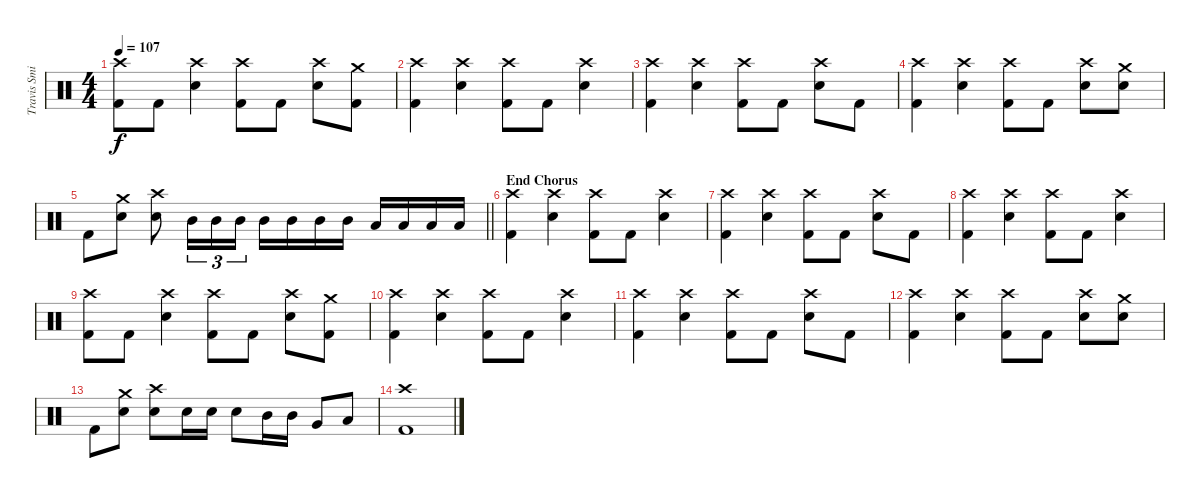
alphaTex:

\track ("Travis Smith" "Travis Smi") {instrument percussion}
\staff {score}
\articulation defaults
\ts (4 4)
\tempo 107
\clef neutral
\ks c
("Crash high (hit)" "Kick (hit) 2").8{dy f} "Kick (hit) 2".8 ("Crash high (hit)" "Electric Snare (hit)").4 ("Crash high (hit)" "Kick (hit) 2").8 "Kick (hit) 2".8 ("Crash high (hit)" "Electric Snare (hit)").8 ("Crash medium (hit)" "Kick (hit) 2").8 |
("Crash high (hit)" "Kick (hit) 2").4 ("Crash high (hit)" "Electric Snare (hit)").4 ("Crash high (hit)" "Kick (hit) 2").8 "Kick (hit) 2".8 ("Crash high (hit)" "Electric Snare (hit)").4 |
("Crash high (hit)" "Kick (hit) 2").4 ("Crash high (hit)" "Electric Snare (hit)").4 ("Crash high (hit)" "Kick (hit) 2").8 "Kick (hit) 2".8 ("Crash high (hit)" "Electric Snare (hit)").8 "Kick (hit) 2".8 |
("Crash high (hit)" "Kick (hit) 2").4 ("Crash high (hit)" "Electric Snare (hit)").4 ("Crash high (hit)" "Kick (hit) 2").8 "Kick (hit) 2".8 ("Crash high (hit)" "Electric Snare (hit)").8 ("Crash medium (hit)" "Electric Snare (hit)").8 |
\barLineRight lightlight "Kick (hit) 2".8
("Crash medium (hit)" "Electric Snare (hit)").8 ("Crash high (hit)" "Electric Snare (hit)").8 "Mid Tom (hit)".16{tu (3 2)} "Mid Tom (hit)".16{tu (3 2)} "Mid Tom (hit)".16{tu (3 2)} "Mid Tom (hit)".16 "Mid Tom (hit)".16 "Mid Tom (hit)".16 "Mid Tom (hit)".16 "Low Tom (hit)".16 "Low Tom (hit)".16 "Low Floor Tom (hit)".16 "Low Floor Tom (hit)".16 |
\section ("" "End Chorus")
("Crash high (hit)" "Kick (hit) 2").4 ("Crash high (hit)" "Electric Snare (hit)").4 ("Crash high (hit)" "Kick (hit) 2").8 "Kick (hit) 2".8 ("Crash high (hit)" "Electric Snare (hit)").4 |
("Crash high (hit)" "Kick (hit) 2").4 ("Crash high (hit)" "Electric Snare (hit)").4 ("Crash high (hit)" "Kick (hit) 2").8 "Kick (hit) 2".8 ("Crash high (hit)" "Electric Snare (hit)").8 "Kick (hit) 2".8 |
("Crash high (hit)" "Kick (hit) 2").4 ("Crash high (hit)" "Electric Snare (hit)").4 ("Crash high (hit)" "Kick (hit) 2").8 "Kick (hit) 2".8 ("Crash high (hit)" "Electric Snare (hit)").4 |
("Crash high (hit)" "Kick (hit) 2").8 "Kick (hit) 2".8 ("Crash high (hit)" "Electric Snare (hit)").4 ("Crash high (hit)" "Kick (hit) 2").8 "Kick (hit) 2".8 ("Crash high (hit)" "Electric Snare (hit)").8 ("Crash medium (hit)" "Kick (hit) 2").8 |
("Crash high (hit)" "Kick (hit) 2").4 ("Crash high (hit)" "Electric Snare (hit)").4 ("Crash high (hit)" "Kick (hit) 2").8 "Kick (hit) 2".8 ("Crash high (hit)" "Electric Snare (hit)").4 |
("Crash high (hit)" "Kick (hit) 2").4 ("Crash high (hit)" "Electric Snare (hit)").4 ("Crash high (hit)" "Kick (hit) 2").8 "Kick (hit) 2".8 ("Crash high (hit)" "Electric Snare (hit)").8 "Kick (hit) 2".8 |
("Crash high (hit)" "Kick (hit) 2").4 ("Crash high (hit)" "Electric Snare (hit)").4 ("Crash high (hit)" "Kick (hit) 2").8 "Kick (hit) 2".8 ("Crash high (hit)" "Electric Snare (hit)").8 ("Crash medium (hit)" "Electric Snare (hit)").8 |
"Kick (hit) 2".8 ("Crash medium (hit)" "Electric Snare (hit)").8 ("Crash high (hit)" "Electric Snare (hit)").8 "Electric Snare (hit)".16 "Electric Snare (hit)".16 "Electric Snare (hit)".8 "Mid Tom (hit)".16 "Mid Tom (hit)".16 "Very Low Tom (hit)".8 "Low Floor Tom (hit)".8 |
("Crash high (hit)" "Kick (hit) 2").1
